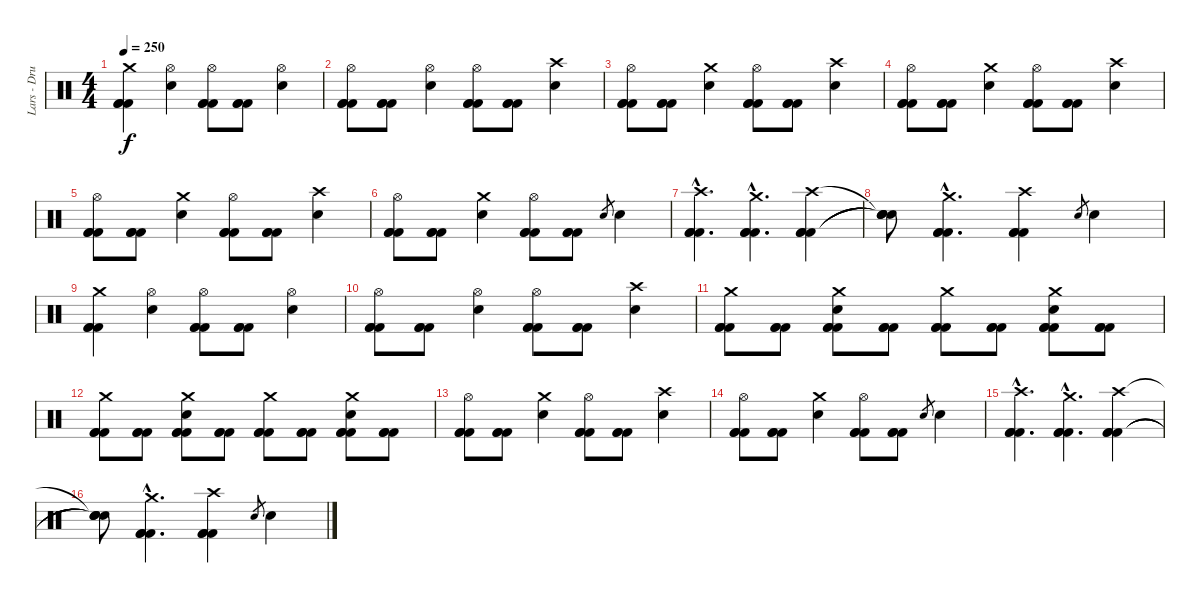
\track ("Lars - Drums" "Lars - Dru") {instrument percussion}
\staff {score}
\articulation defaults
\ts (4 4)
\tempo 250
\clef neutral
\ks c
("Crash medium (hit)" "Kick (hit) 2" "Kick (hit) 2" "Kick (hit) 2").4{dy f} ("Hi-Hat (open)" "Snare (hit) 2").4 ("Hi-Hat (open)" "Kick (hit) 2" "Kick (hit) 2" "Kick (hit) 2").8 ("Kick (hit) 2" "Kick (hit) 2" "Kick (hit) 2").8 ("Hi-Hat (open)" "Snare (hit) 2").4 |
("Hi-Hat (open)" "Kick (hit) 2" "Kick (hit) 2" "Kick (hit) 2").8 ("Kick (hit) 2" "Kick (hit) 2" "Kick (hit) 2").8 ("Hi-Hat (open)" "Snare (hit) 2").4 ("Hi-Hat (open)" "Kick (hit) 2" "Kick (hit) 2" "Kick (hit) 2").8 ("Kick (hit) 2" "Kick (hit) 2" "Kick (hit) 2").8 ("Crash high (hit)" "Snare (hit) 2").4 |
("Hi-Hat (open)" "Kick (hit) 2" "Kick (hit) 2" "Kick (hit) 2").8 ("Kick (hit) 2" "Kick (hit) 2" "Kick (hit) 2").8 ("Crash medium (hit)" "Snare (hit) 2").4 ("Hi-Hat (open)" "Kick (hit) 2" "Kick (hit) 2" "Kick (hit) 2").8 ("Kick (hit) 2" "Kick (hit) 2" "Kick (hit) 2").8 ("Crash high (hit)" "Snare (hit) 2").4 |
("Hi-Hat (open)" "Kick (hit) 2" "Kick (hit) 2" "Kick (hit) 2").8 ("Kick (hit) 2" "Kick (hit) 2" "Kick (hit) 2").8 ("Crash medium (hit)" "Snare (hit) 2").4 ("Hi-Hat (open)" "Kick (hit) 2" "Kick (hit) 2" "Kick (hit) 2").8 ("Kick (hit) 2" "Kick (hit) 2" "Kick (hit) 2").8 ("Crash high (hit)" "Snare (hit) 2").4 |
("Hi-Hat (open)" "Kick (hit) 2" "Kick (hit) 2" "Kick (hit) 2").8 ("Kick (hit) 2" "Kick (hit) 2" "Kick (hit) 2").8 ("Crash medium (hit)" "Snare (hit) 2").4 ("Hi-Hat (open)" "Kick (hit) 2" "Kick (hit) 2" "Kick (hit) 2").8 ("Kick (hit) 2" "Kick (hit) 2" "Kick (hit) 2").8 ("Crash high (hit)" "Snare (hit) 2").4 |
("Hi-Hat (open)" "Kick (hit) 2" "Kick (hit) 2" "Kick (hit) 2").8 ("Kick (hit) 2" "Kick (hit) 2" "Kick (hit) 2").8 ("Crash medium (hit)" "Snare (hit) 2").4 ("Hi-Hat (open)" "Kick (hit) 2" "Kick (hit) 2" "Kick (hit) 2").8 ("Kick (hit) 2" "Kick (hit) 2" "Kick (hit) 2").8 "Snare (hit) 2".8{gr} "Snare (hit) 2".4 |
("Crash high (hit)"{hac} "Kick (hit) 2"{hac} "Kick (hit) 2"{hac} "Kick (hit) 2"{hac}).4{d} ("Crash medium (hit)"{hac} "Kick (hit) 2"{hac} "Kick (hit) 2"{hac} "Kick (hit) 2"{hac}).4{d} ("Crash high (hit)" "Kick (hit) 2" "Kick (hit) 2" "Kick (hit) 2").4 |
("Snare (hit)"{t} "Snare (hit)"{t} "Snare (hit)"{t} "Snare (hit)"{t}).8 ("Crash medium (hit)"{hac} "Kick (hit) 2"{hac} "Kick (hit) 2"{hac} "Kick (hit) 2"{hac}).4{d} ("Crash high (hit)" "Kick (hit) 2" "Kick (hit) 2" "Kick (hit) 2").4 "Snare (hit) 2".8{gr} "Snare (hit) 2".4 |
("Crash medium (hit)" "Kick (hit) 2" "Kick (hit) 2" "Kick (hit) 2").4 ("Hi-Hat (open)" "Snare (hit) 2").4 ("Hi-Hat (open)" "Kick (hit) 2" "Kick (hit) 2" "Kick (hit) 2").8 ("Kick (hit) 2" "Kick (hit) 2" "Kick (hit) 2").8 ("Hi-Hat (open)" "Snare (hit) 2").4 |
("Hi-Hat (open)" "Kick (hit) 2" "Kick (hit) 2" "Kick (hit) 2").8 ("Kick (hit) 2" "Kick (hit) 2" "Kick (hit) 2").8 ("Hi-Hat (open)" "Snare (hit) 2").4 ("Hi-Hat (open)" "Kick (hit) 2" "Kick (hit) 2" "Kick (hit) 2").8 ("Kick (hit) 2" "Kick (hit) 2" "Kick (hit) 2").8 ("Crash high (hit)" "Snare (hit) 2").4 |
("Crash medium (hit)" "Kick (hit) 2" "Kick (hit) 2" "Kick (hit) 2").8 ("Kick (hit) 2" "Kick (hit) 2" "Kick (hit) 2").8 ("Crash medium (hit)" "Snare (hit) 2" "Kick (hit) 2" "Kick (hit) 2" "Kick (hit) 2").8 ("Kick (hit) 2" "Kick (hit) 2" "Kick (hit) 2").8 ("Crash medium (hit)" "Kick (hit) 2" "Kick (hit) 2" "Kick (hit) 2").8 ("Kick (hit) 2" "Kick (hit) 2" "Kick (hit) 2").8 ("Crash medium (hit)" "Snare (hit) 2" "Kick (hit) 2" "Kick (hit) 2" "Kick (hit) 2").8 ("Kick (hit) 2" "Kick (hit) 2" "Kick (hit) 2").8 |
("Crash medium (hit)" "Kick (hit) 2" "Kick (hit) 2" "Kick (hit) 2").8 ("Kick (hit) 2" "Kick (hit) 2" "Kick (hit) 2").8 ("Crash medium (hit)" "Snare (hit) 2" "Kick (hit) 2" "Kick (hit) 2" "Kick (hit) 2").8 ("Kick (hit) 2" "Kick (hit) 2" "Kick (hit) 2").8 ("Crash medium (hit)" "Kick (hit) 2" "Kick (hit) 2" "Kick (hit) 2").8 ("Kick (hit) 2" "Kick (hit) 2" "Kick (hit) 2").8 ("Crash medium (hit)" "Snare (hit) 2" "Kick (hit) 2" "Kick (hit) 2" "Kick (hit) 2").8 ("Kick (hit) 2" "Kick (hit) 2" "Kick (hit) 2").8 |
("Hi-Hat (open)" "Kick (hit) 2" "Kick (hit) 2" "Kick (hit) 2").8 ("Kick (hit) 2" "Kick (hit) 2" "Kick (hit) 2").8 ("Crash medium (hit)" "Snare (hit) 2").4 ("Hi-Hat (open)" "Kick (hit) 2" "Kick (hit) 2" "Kick (hit) 2").8 ("Kick (hit) 2" "Kick (hit) 2" "Kick (hit) 2").8 ("Crash high (hit)" "Snare (hit) 2").4 |
("Hi-Hat (open)" "Kick (hit) 2" "Kick (hit) 2" "Kick (hit) 2").8 ("Kick (hit) 2" "Kick (hit) 2" "Kick (hit) 2").8 ("Crash medium (hit)" "Snare (hit) 2").4 ("Hi-Hat (open)" "Kick (hit) 2" "Kick (hit) 2" "Kick (hit) 2").8 ("Kick (hit) 2" "Kick (hit) 2" "Kick (hit) 2").8 "Snare (hit) 2".8{gr} "Snare (hit) 2".4 |
("Crash high (hit)"{hac} "Kick (hit) 2"{hac} "Kick (hit) 2"{hac} "Kick (hit) 2"{hac}).4{d} ("Crash medium (hit)"{hac} "Kick (hit) 2"{hac} "Kick (hit) 2"{hac} "Kick (hit) 2"{hac}).4{d} ("Crash high (hit)" "Kick (hit) 2" "Kick (hit) 2" "Kick (hit) 2").4 |
("Snare (hit)"{t} "Snare (hit)"{t} "Snare (hit)"{t} "Snare (hit)"{t}).8 ("Crash medium (hit)"{hac} "Kick (hit) 2"{hac} "Kick (hit) 2"{hac} "Kick (hit) 2"{hac}).4{d} ("Crash high (hit)" "Kick (hit) 2" "Kick (hit) 2" "Kick (hit) 2").4 "Snare (hit) 2".8{gr} "Snare (hit) 2".4
